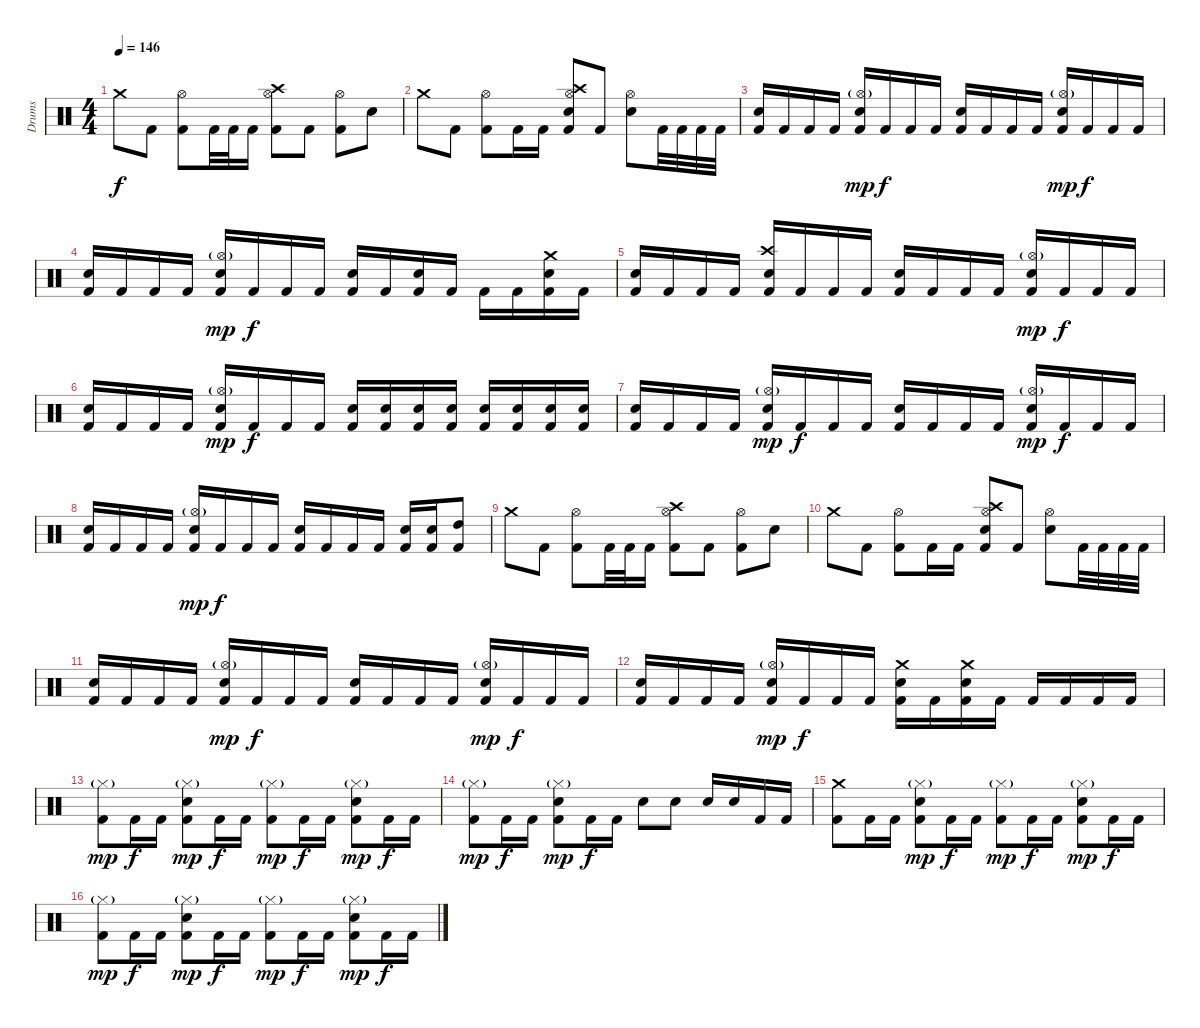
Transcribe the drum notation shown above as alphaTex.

\track ("Drums" "Drums") {instrument percussion}
\staff {score}
\articulation defaults
\ts (4 4)
\tempo 146
\clef neutral
\ks c "Crash medium (hit)".8{dy f} "Kick (hit) 2".8
("Hi-Hat (open)" "Kick (hit) 2").8 "Kick (hit) 2".32 "Kick (hit) 2".32 "Kick (hit) 2".16 ("Crash high (hit)" "Hi-Hat (open)" "Kick (hit) 2").8 "Kick (hit) 2".8 ("Hi-Hat (open)" "Kick (hit) 2").8 "Snare (hit) 2".8 |
"Crash medium (hit)".8 "Kick (hit) 2".8 ("Hi-Hat (open)" "Kick (hit) 2").8 "Kick (hit) 2".16 "Kick (hit) 2".16 ("Crash high (hit)" "Hi-Hat (open)" "Snare (hit) 2" "Kick (hit) 2").8 "Kick (hit) 2".8 ("Hi-Hat (open)" "Snare (hit) 2").8 "Kick (hit) 2".32 "Kick (hit) 2".32 "Kick (hit) 2".32 "Kick (hit) 2".32 |
("Snare (hit) 2" "Kick (hit) 2").16 "Kick (hit) 2".16 "Kick (hit) 2".16 "Kick (hit) 2".16 ("Snare (hit) 2" "Hi-Hat (open)"{g} "Kick (hit) 2").16{dy mp} "Kick (hit) 2".16{dy f} "Kick (hit) 2".16 "Kick (hit) 2".16 ("Snare (hit) 2" "Kick (hit) 2").16 "Kick (hit) 2".16 "Kick (hit) 2".16 "Kick (hit) 2".16 ("Snare (hit) 2" "Hi-Hat (open)"{g} "Kick (hit) 2").16{dy mp} "Kick (hit) 2".16{dy f} "Kick (hit) 2".16 "Kick (hit) 2".16 |
("Snare (hit) 2" "Kick (hit) 2").16 "Kick (hit) 2".16 "Kick (hit) 2".16 "Kick (hit) 2".16 ("Snare (hit) 2" "Hi-Hat (open)"{g} "Kick (hit) 2").16{dy mp} "Kick (hit) 2".16{dy f} "Kick (hit) 2".16 "Kick (hit) 2".16 ("Snare (hit) 2" "Kick (hit) 2").16 "Kick (hit) 2".16 ("Snare (hit) 2" "Kick (hit) 2").16 "Kick (hit) 2".16 "Kick (hit) 2".16 "Kick (hit) 2".16 ("Crash medium (hit)" "Snare (hit) 2" "Kick (hit) 2").16 "Kick (hit) 2".16 |
("Snare (hit) 2" "Kick (hit) 2").16 "Kick (hit) 2".16 "Kick (hit) 2".16 "Kick (hit) 2".16 ("Crash high (hit)" "Snare (hit) 2" "Kick (hit) 2").16 "Kick (hit) 2".16 "Kick (hit) 2".16 "Kick (hit) 2".16 ("Snare (hit) 2" "Kick (hit) 2").16 "Kick (hit) 2".16 "Kick (hit) 2".16 "Kick (hit) 2".16 ("Snare (hit) 2" "Hi-Hat (open)"{g} "Kick (hit) 2").16{dy mp} "Kick (hit) 2".16{dy f} "Kick (hit) 2".16 "Kick (hit) 2".16 |
("Snare (hit) 2" "Kick (hit) 2").16 "Kick (hit) 2".16 "Kick (hit) 2".16 "Kick (hit) 2".16 ("Snare (hit) 2" "Hi-Hat (open)"{g} "Kick (hit) 2").16{dy mp} "Kick (hit) 2".16{dy f} "Kick (hit) 2".16 "Kick (hit) 2".16 ("Snare (hit) 2" "Kick (hit) 2").16 ("Snare (hit) 2" "Kick (hit) 2").16 ("Snare (hit) 2" "Kick (hit) 2").16 ("Snare (hit) 2" "Kick (hit) 2").16 ("Snare (hit) 2" "Kick (hit) 2").16 ("Snare (hit) 2" "Kick (hit) 2").16 ("Snare (hit) 2" "Kick (hit) 2").16 ("Snare (hit) 2" "Kick (hit) 2").16 |
("Snare (hit) 2" "Kick (hit) 2").16 "Kick (hit) 2".16 "Kick (hit) 2".16 "Kick (hit) 2".16 ("Snare (hit) 2" "Hi-Hat (open)"{g} "Kick (hit) 2").16{dy mp} "Kick (hit) 2".16{dy f} "Kick (hit) 2".16 "Kick (hit) 2".16 ("Snare (hit) 2" "Kick (hit) 2").16 "Kick (hit) 2".16 "Kick (hit) 2".16 "Kick (hit) 2".16 ("Snare (hit) 2" "Hi-Hat (open)"{g} "Kick (hit) 2").16{dy mp} "Kick (hit) 2".16{dy f} "Kick (hit) 2".16 "Kick (hit) 2".16 |
("Snare (hit) 2" "Kick (hit) 2").16 "Kick (hit) 2".16 "Kick (hit) 2".16 "Kick (hit) 2".16 ("Snare (hit) 2" "Hi-Hat (open)"{g} "Kick (hit) 2").16{dy mp} "Kick (hit) 2".16{dy f} "Kick (hit) 2".16 "Kick (hit) 2".16 ("Snare (hit) 2" "Kick (hit) 2").16 "Kick (hit) 2".16 "Kick (hit) 2".16 "Kick (hit) 2".16 ("Snare (hit) 2" "Kick (hit) 2").16 ("Snare (hit) 2" "Kick (hit) 2").16 ("High Tom (hit)" "Kick (hit) 2").8 |
"Crash medium (hit)".8 "Kick (hit) 2".8 ("Hi-Hat (open)" "Kick (hit) 2").8 "Kick (hit) 2".32 "Kick (hit) 2".32 "Kick (hit) 2".16 ("Crash high (hit)" "Hi-Hat (open)" "Kick (hit) 2").8 "Kick (hit) 2".8 ("Hi-Hat (open)" "Kick (hit) 2").8 "Snare (hit) 2".8 |
"Crash medium (hit)".8 "Kick (hit) 2".8 ("Hi-Hat (open)" "Kick (hit) 2").8 "Kick (hit) 2".16 "Kick (hit) 2".16 ("Crash high (hit)" "Hi-Hat (open)" "Snare (hit) 2" "Kick (hit) 2").8 "Kick (hit) 2".8 ("Hi-Hat (open)" "Snare (hit) 2").8 "Kick (hit) 2".32 "Kick (hit) 2".32 "Kick (hit) 2".32 "Kick (hit) 2".32 |
("Snare (hit) 2" "Kick (hit) 2").16 "Kick (hit) 2".16 "Kick (hit) 2".16 "Kick (hit) 2".16 ("Snare (hit) 2" "Hi-Hat (open)"{g} "Kick (hit) 2").16{dy mp} "Kick (hit) 2".16{dy f} "Kick (hit) 2".16 "Kick (hit) 2".16 ("Snare (hit) 2" "Kick (hit) 2").16 "Kick (hit) 2".16 "Kick (hit) 2".16 "Kick (hit) 2".16 ("Snare (hit) 2" "Hi-Hat (open)"{g} "Kick (hit) 2").16{dy mp} "Kick (hit) 2".16{dy f} "Kick (hit) 2".16 "Kick (hit) 2".16 |
("Snare (hit) 2" "Kick (hit) 2").16 "Kick (hit) 2".16 "Kick (hit) 2".16 "Kick (hit) 2".16 ("Snare (hit) 2" "Hi-Hat (open)"{g} "Kick (hit) 2").16{dy mp} "Kick (hit) 2".16{dy f} "Kick (hit) 2".16 "Kick (hit) 2".16 ("Snare (hit) 2" "Crash medium (hit)" "Kick (hit) 2").16 "Kick (hit) 2".16 ("Snare (hit) 2" "Crash medium (hit)" "Kick (hit) 2").16 "Kick (hit) 2".16 "Kick (hit) 2".16 "Kick (hit) 2".16 "Kick (hit) 2".16 "Kick (hit) 2".16 |
("Hi-Hat (closed)"{g} "Kick (hit) 2").8{dy mp} "Kick (hit) 2".16{dy f} "Kick (hit) 2".16 ("Snare (hit) 2" "Hi-Hat (closed)"{g} "Kick (hit) 2").8{dy mp} "Kick (hit) 2".16{dy f} "Kick (hit) 2".16 ("Hi-Hat (closed)"{g} "Kick (hit) 2").8{dy mp} "Kick (hit) 2".16{dy f} "Kick (hit) 2".16 ("Snare (hit) 2" "Hi-Hat (closed)"{g} "Kick (hit) 2").8{dy mp} "Kick (hit) 2".16{dy f} "Kick (hit) 2".16 |
("Hi-Hat (closed)"{g} "Kick (hit) 2").8{dy mp} "Kick (hit) 2".16{dy f} "Kick (hit) 2".16 ("Snare (hit) 2" "Hi-Hat (closed)"{g} "Kick (hit) 2").8{dy mp} "Kick (hit) 2".16{dy f} "Kick (hit) 2".16 "Snare (hit) 2".8 "Snare (hit) 2".8 "Snare (hit) 2".16 "Snare (hit) 2".16 "Kick (hit) 2".16 "Kick (hit) 2".16 |
("Crash medium (hit)" "Kick (hit) 2").8 "Kick (hit) 2".16 "Kick (hit) 2".16 ("Snare (hit) 2" "Hi-Hat (closed)"{g} "Kick (hit) 2").8{dy mp} "Kick (hit) 2".16{dy f} "Kick (hit) 2".16 ("Hi-Hat (closed)"{g} "Kick (hit) 2").8{dy mp} "Kick (hit) 2".16{dy f} "Kick (hit) 2".16 ("Snare (hit) 2" "Hi-Hat (closed)"{g} "Kick (hit) 2").8{dy mp} "Kick (hit) 2".16{dy f} "Kick (hit) 2".16 |
("Hi-Hat (closed)"{g} "Kick (hit) 2").8{dy mp} "Kick (hit) 2".16{dy f} "Kick (hit) 2".16 ("Snare (hit) 2" "Hi-Hat (closed)"{g} "Kick (hit) 2").8{dy mp} "Kick (hit) 2".16{dy f} "Kick (hit) 2".16 ("Hi-Hat (closed)"{g} "Kick (hit) 2").8{dy mp} "Kick (hit) 2".16{dy f} "Kick (hit) 2".16 ("Snare (hit) 2" "Hi-Hat (closed)"{g} "Kick (hit) 2").8{dy mp} "Kick (hit) 2".16{dy f} "Kick (hit) 2".16
